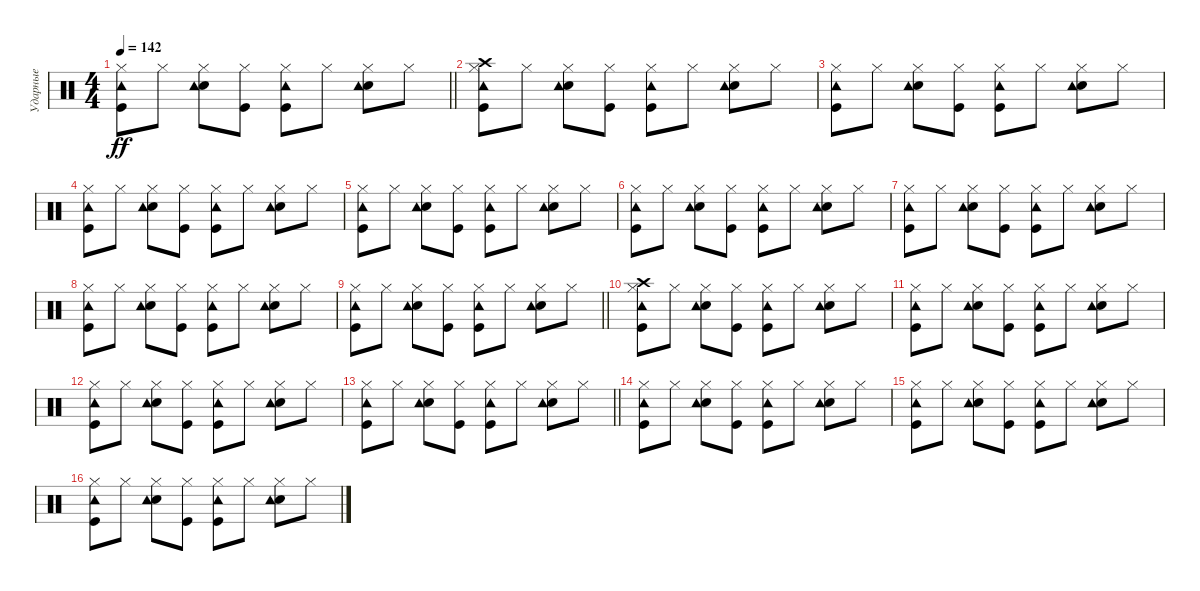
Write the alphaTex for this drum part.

\track ("Ударные" "Ударные") {instrument percussion}
\staff {score}
\articulation defaults
\ts (4 4)
\tempo 142
\clef neutral
\barLineRight lightlight
\ks c
("Hi-Hat (closed)" "Kick (hit)" "Tambourine (hit)").8{dy ff} "Hi-Hat (closed)".8 ("Hi-Hat (closed)" "Electric Snare (hit)" "Tambourine (hit)").8 ("Hi-Hat (closed)" "Kick (hit)").8 ("Hi-Hat (closed)" "Tambourine (hit)" "Kick (hit)").8 "Hi-Hat (closed)".8 ("Hi-Hat (closed)" "Electric Snare (hit)" "Tambourine (hit)").8 "Hi-Hat (closed)".8 |
("Crash high (hit)" "Hi-Hat (closed)" "Kick (hit)" "Tambourine (hit)").8 "Hi-Hat (closed)".8 ("Hi-Hat (closed)" "Electric Snare (hit)" "Tambourine (hit)").8 ("Hi-Hat (closed)" "Kick (hit)").8 ("Hi-Hat (closed)" "Tambourine (hit)" "Kick (hit)").8 "Hi-Hat (closed)".8 ("Hi-Hat (closed)" "Electric Snare (hit)" "Tambourine (hit)").8 "Hi-Hat (closed)".8 |
("Hi-Hat (closed)" "Kick (hit)" "Tambourine (hit)").8 "Hi-Hat (closed)".8 ("Hi-Hat (closed)" "Electric Snare (hit)" "Tambourine (hit)").8 ("Hi-Hat (closed)" "Kick (hit)").8 ("Hi-Hat (closed)" "Tambourine (hit)" "Kick (hit)").8 "Hi-Hat (closed)".8 ("Hi-Hat (closed)" "Electric Snare (hit)" "Tambourine (hit)").8 "Hi-Hat (closed)".8 |
("Hi-Hat (closed)" "Kick (hit)" "Tambourine (hit)").8 "Hi-Hat (closed)".8 ("Hi-Hat (closed)" "Electric Snare (hit)" "Tambourine (hit)").8 ("Hi-Hat (closed)" "Kick (hit)").8 ("Hi-Hat (closed)" "Tambourine (hit)" "Kick (hit)").8 "Hi-Hat (closed)".8 ("Hi-Hat (closed)" "Electric Snare (hit)" "Tambourine (hit)").8 "Hi-Hat (closed)".8 |
("Hi-Hat (closed)" "Kick (hit)" "Tambourine (hit)").8 "Hi-Hat (closed)".8 ("Hi-Hat (closed)" "Electric Snare (hit)" "Tambourine (hit)").8 ("Hi-Hat (closed)" "Kick (hit)").8 ("Hi-Hat (closed)" "Tambourine (hit)" "Kick (hit)").8 "Hi-Hat (closed)".8 ("Hi-Hat (closed)" "Electric Snare (hit)" "Tambourine (hit)").8 "Hi-Hat (closed)".8 |
("Hi-Hat (closed)" "Kick (hit)" "Tambourine (hit)").8 "Hi-Hat (closed)".8 ("Hi-Hat (closed)" "Electric Snare (hit)" "Tambourine (hit)").8 ("Hi-Hat (closed)" "Kick (hit)").8 ("Hi-Hat (closed)" "Tambourine (hit)" "Kick (hit)").8 "Hi-Hat (closed)".8 ("Hi-Hat (closed)" "Electric Snare (hit)" "Tambourine (hit)").8 "Hi-Hat (closed)".8 |
("Hi-Hat (closed)" "Kick (hit)" "Tambourine (hit)").8 "Hi-Hat (closed)".8 ("Hi-Hat (closed)" "Electric Snare (hit)" "Tambourine (hit)").8 ("Hi-Hat (closed)" "Kick (hit)").8 ("Hi-Hat (closed)" "Tambourine (hit)" "Kick (hit)").8 "Hi-Hat (closed)".8 ("Hi-Hat (closed)" "Electric Snare (hit)" "Tambourine (hit)").8 "Hi-Hat (closed)".8 |
("Hi-Hat (closed)" "Kick (hit)" "Tambourine (hit)").8 "Hi-Hat (closed)".8 ("Hi-Hat (closed)" "Electric Snare (hit)" "Tambourine (hit)").8 ("Hi-Hat (closed)" "Kick (hit)").8 ("Hi-Hat (closed)" "Tambourine (hit)" "Kick (hit)").8 "Hi-Hat (closed)".8 ("Hi-Hat (closed)" "Electric Snare (hit)" "Tambourine (hit)").8 "Hi-Hat (closed)".8 |
\barLineRight lightlight
("Hi-Hat (closed)" "Kick (hit)" "Tambourine (hit)").8 "Hi-Hat (closed)".8 ("Hi-Hat (closed)" "Electric Snare (hit)" "Tambourine (hit)").8 ("Hi-Hat (closed)" "Kick (hit)").8 ("Hi-Hat (closed)" "Tambourine (hit)" "Kick (hit)").8 "Hi-Hat (closed)".8 ("Hi-Hat (closed)" "Electric Snare (hit)" "Tambourine (hit)").8 "Hi-Hat (closed)".8 |
("Crash high (hit)" "Hi-Hat (closed)" "Kick (hit)" "Tambourine (hit)").8 "Hi-Hat (closed)".8 ("Hi-Hat (closed)" "Electric Snare (hit)" "Tambourine (hit)").8 ("Hi-Hat (closed)" "Kick (hit)").8 ("Hi-Hat (closed)" "Tambourine (hit)" "Kick (hit)").8 "Hi-Hat (closed)".8 ("Hi-Hat (closed)" "Electric Snare (hit)" "Tambourine (hit)").8 "Hi-Hat (closed)".8 |
("Hi-Hat (closed)" "Kick (hit)" "Tambourine (hit)").8 "Hi-Hat (closed)".8 ("Hi-Hat (closed)" "Electric Snare (hit)" "Tambourine (hit)").8 ("Hi-Hat (closed)" "Kick (hit)").8 ("Hi-Hat (closed)" "Tambourine (hit)" "Kick (hit)").8 "Hi-Hat (closed)".8 ("Hi-Hat (closed)" "Electric Snare (hit)" "Tambourine (hit)").8 "Hi-Hat (closed)".8 |
("Hi-Hat (closed)" "Kick (hit)" "Tambourine (hit)").8 "Hi-Hat (closed)".8 ("Hi-Hat (closed)" "Electric Snare (hit)" "Tambourine (hit)").8 ("Hi-Hat (closed)" "Kick (hit)").8 ("Hi-Hat (closed)" "Tambourine (hit)" "Kick (hit)").8 "Hi-Hat (closed)".8 ("Hi-Hat (closed)" "Electric Snare (hit)" "Tambourine (hit)").8 "Hi-Hat (closed)".8 |
\barLineRight lightlight
("Hi-Hat (closed)" "Kick (hit)" "Tambourine (hit)").8 "Hi-Hat (closed)".8 ("Hi-Hat (closed)" "Electric Snare (hit)" "Tambourine (hit)").8 ("Hi-Hat (closed)" "Kick (hit)").8 ("Hi-Hat (closed)" "Tambourine (hit)" "Kick (hit)").8 "Hi-Hat (closed)".8 ("Hi-Hat (closed)" "Electric Snare (hit)" "Tambourine (hit)").8 "Hi-Hat (closed)".8 |
("Hi-Hat (closed)" "Kick (hit)" "Tambourine (hit)").8 "Hi-Hat (closed)".8 ("Hi-Hat (closed)" "Electric Snare (hit)" "Tambourine (hit)").8 ("Hi-Hat (closed)" "Kick (hit)").8 ("Hi-Hat (closed)" "Tambourine (hit)" "Kick (hit)").8 "Hi-Hat (closed)".8 ("Hi-Hat (closed)" "Electric Snare (hit)" "Tambourine (hit)").8 "Hi-Hat (closed)".8 |
("Hi-Hat (closed)" "Kick (hit)" "Tambourine (hit)").8 "Hi-Hat (closed)".8 ("Hi-Hat (closed)" "Electric Snare (hit)" "Tambourine (hit)").8 ("Hi-Hat (closed)" "Kick (hit)").8 ("Hi-Hat (closed)" "Tambourine (hit)" "Kick (hit)").8 "Hi-Hat (closed)".8 ("Hi-Hat (closed)" "Electric Snare (hit)" "Tambourine (hit)").8 "Hi-Hat (closed)".8 |
("Hi-Hat (closed)" "Kick (hit)" "Tambourine (hit)").8 "Hi-Hat (closed)".8 ("Hi-Hat (closed)" "Electric Snare (hit)" "Tambourine (hit)").8 ("Hi-Hat (closed)" "Kick (hit)").8 ("Hi-Hat (closed)" "Tambourine (hit)" "Kick (hit)").8 "Hi-Hat (closed)".8 ("Hi-Hat (closed)" "Electric Snare (hit)" "Tambourine (hit)").8 "Hi-Hat (closed)".8
